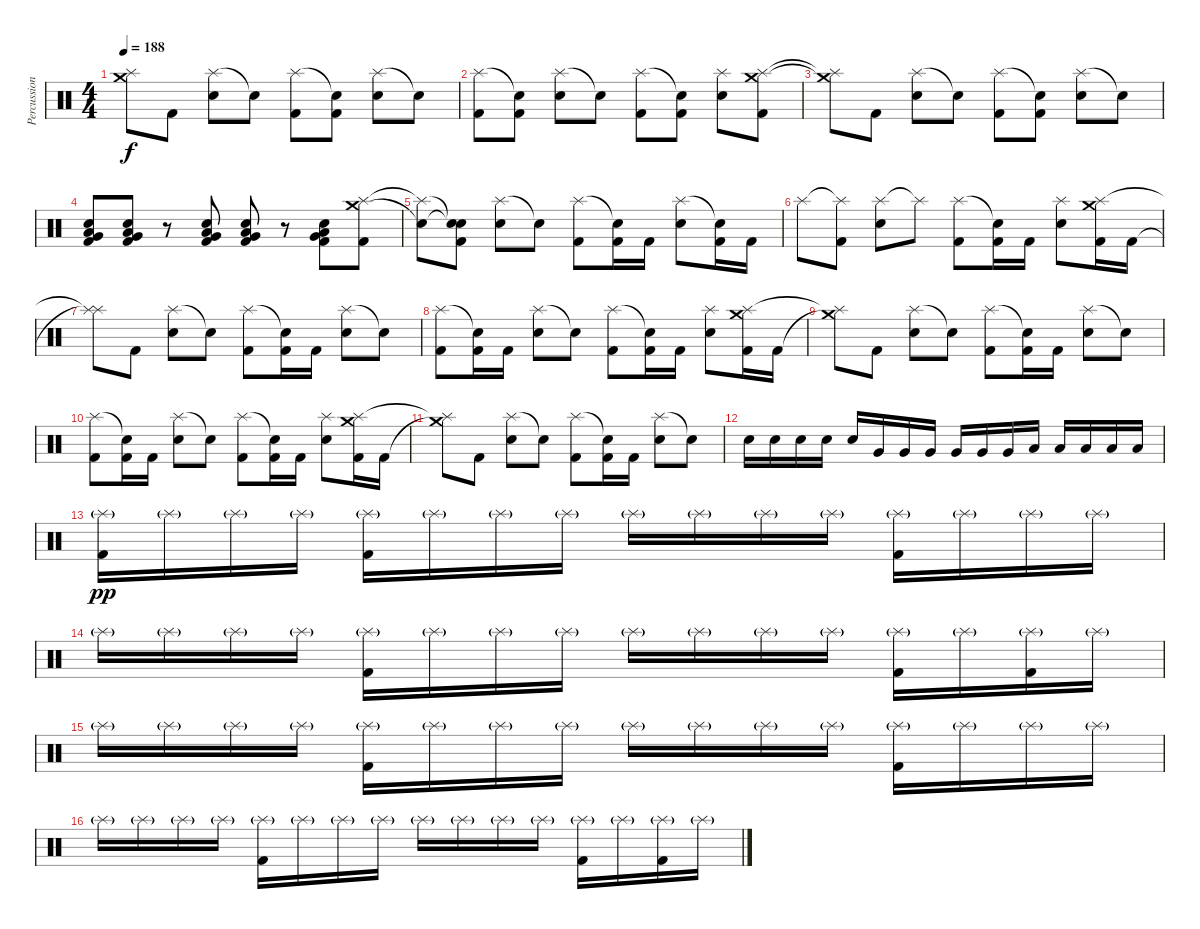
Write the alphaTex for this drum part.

\track ("Percussion" "Percussion") {instrument percussion}
\staff {score}
\articulation defaults
\ts (4 4)
\tempo 188
\clef neutral
\ks c
("Crash medium (hit)"{t} "Splash (hit)"{t}).8{dy f} "Kick (hit) 2".8 ("Splash (hit)" "Electric Snare (hit)").8 "Snare (hit)"{t}.8 ("Splash (hit)" "Kick (hit) 2").8 ("Snare (hit)"{t} "Kick (hit) 2").8 ("Splash (hit)" "Electric Snare (hit)").8 "Snare (hit)"{t}.8 |
("Splash (hit)" "Kick (hit) 2").8 ("Snare (hit)"{t} "Kick (hit) 2").8 ("Splash (hit)" "Electric Snare (hit)").8 "Snare (hit)"{t}.8 ("Splash (hit)" "Kick (hit) 2").8 ("Snare (hit)"{t} "Kick (hit) 2").8 ("Splash (hit)" "Electric Snare (hit)").8 ("Crash medium (hit)" "Splash (hit)" "Kick (hit) 2").8 |
("Crash medium (hit)"{t} "Splash (hit)"{t}).8 "Kick (hit) 2".8 ("Splash (hit)" "Electric Snare (hit)").8 "Snare (hit)"{t}.8 ("Splash (hit)" "Kick (hit) 2").8 ("Snare (hit)"{t} "Kick (hit) 2").8 ("Splash (hit)" "Electric Snare (hit)").8 "Snare (hit)"{t}.8 |
("Electric Snare (hit)" "Low Floor Tom (hit)" "Very Low Tom (hit)" "Kick (hit) 2").8 ("Electric Snare (hit)" "Low Floor Tom (hit)" "Very Low Tom (hit)" "Kick (hit) 2").8 r.8 ("Electric Snare (hit)" "Low Floor Tom (hit)" "Very Low Tom (hit)" "Kick (hit) 2").8 ("Electric Snare (hit)" "Low Floor Tom (hit)" "Very Low Tom (hit)" "Kick (hit) 2").8 r.8 ("Electric Snare (hit)" "Low Floor Tom (hit)" "Very Low Tom (hit)" "Kick (hit) 2").8 ("Splash (hit)" "Crash medium (hit)" "Kick (hit) 2").8 |
("Splash (hit)"{t} "Snare (hit)"{t}).8 ("Snare (hit)"{t} "Snare (hit)"{t} "Kick (hit) 2").8 ("Splash (hit)" "Electric Snare (hit)").8 "Snare (hit)"{t}.8 ("Splash (hit)" "Kick (hit) 2").8 ("Snare (hit)"{t} "Kick (hit) 2").16 "Kick (hit) 2".16 ("Splash (hit)" "Electric Snare (hit)").8 ("Snare (hit)"{t} "Kick (hit) 2").16 "Kick (hit) 2".16 |
"Splash (hit)".8 ("Splash (hit)"{t} "Kick (hit) 2").8 ("Splash (hit)" "Electric Snare (hit)").8 "Splash (hit)"{t}.8 ("Splash (hit)" "Kick (hit) 2").8 ("Snare (hit)"{t} "Kick (hit) 2").16 "Kick (hit) 2".16 ("Splash (hit)" "Electric Snare (hit)").8 ("Crash medium (hit)" "Splash (hit)" "Kick (hit) 2").16 "Kick (hit) 2".16 |
("Splash (hit)"{t} "Splash (hit)"{t}).8 "Kick (hit) 2".8 ("Splash (hit)" "Electric Snare (hit)").8 "Snare (hit)"{t}.8 ("Splash (hit)" "Kick (hit) 2").8 ("Snare (hit)"{t} "Kick (hit) 2").16 "Kick (hit) 2".16 ("Splash (hit)" "Electric Snare (hit)").8 "Snare (hit)"{t}.8 |
("Splash (hit)" "Kick (hit) 2").8 ("Snare (hit)"{t} "Kick (hit) 2").16 "Kick (hit) 2".16 ("Splash (hit)" "Electric Snare (hit)").8 "Snare (hit)"{t}.8 ("Splash (hit)" "Kick (hit) 2").8 ("Snare (hit)"{t} "Kick (hit) 2").16 "Kick (hit) 2".16 ("Splash (hit)" "Electric Snare (hit)").8 ("Crash medium (hit)" "Splash (hit)" "Kick (hit) 2").16 "Kick (hit) 2".16 |
("Crash medium (hit)"{t} "Splash (hit)"{t}).8 "Kick (hit) 2".8 ("Splash (hit)" "Electric Snare (hit)").8 "Snare (hit)"{t}.8 ("Splash (hit)" "Kick (hit) 2").8 ("Snare (hit)"{t} "Kick (hit) 2").16 "Kick (hit) 2".16 ("Splash (hit)" "Electric Snare (hit)").8 "Snare (hit)"{t}.8 |
("Splash (hit)" "Kick (hit) 2").8 ("Snare (hit)"{t} "Kick (hit) 2").16 "Kick (hit) 2".16 ("Splash (hit)" "Electric Snare (hit)").8 "Snare (hit)"{t}.8 ("Splash (hit)" "Kick (hit) 2").8 ("Snare (hit)"{t} "Kick (hit) 2").16 "Kick (hit) 2".16 ("Splash (hit)" "Electric Snare (hit)").8 ("Crash medium (hit)" "Splash (hit)" "Kick (hit) 2").16 "Kick (hit) 2".16 |
("Crash medium (hit)"{t} "Splash (hit)"{t}).8 "Kick (hit) 2".8 ("Splash (hit)" "Electric Snare (hit)").8 "Snare (hit)"{t}.8 ("Splash (hit)" "Kick (hit) 2").8 ("Snare (hit)"{t} "Kick (hit) 2").16 "Kick (hit) 2".16 ("Splash (hit)" "Electric Snare (hit)").8 "Snare (hit)"{t}.8 |
"Electric Snare (hit)".16 "Electric Snare (hit)".16 "Electric Snare (hit)".16 "Electric Snare (hit)".16 "Electric Snare (hit)".16 "Very Low Tom (hit)".16 "Very Low Tom (hit)".16 "Very Low Tom (hit)".16 "Very Low Tom (hit)".16 "Very Low Tom (hit)".16 "Very Low Tom (hit)".16 "Low Floor Tom (hit)".16 "Low Floor Tom (hit)".16 "Low Floor Tom (hit)".16 "Low Floor Tom (hit)".16 "Low Floor Tom (hit)".16 |
("Splash (hit)"{g} "Kick (hit) 2").16{dy pp} "Splash (hit)"{g}.16 "Splash (hit)"{g}.16 "Splash (hit)"{g}.16 ("Splash (hit)"{g} "Kick (hit) 2").16 "Splash (hit)"{g}.16 "Splash (hit)"{g}.16 "Splash (hit)"{g}.16 "Splash (hit)"{g}.16 "Splash (hit)"{g}.16 "Splash (hit)"{g}.16 "Splash (hit)"{g}.16 ("Splash (hit)"{g} "Kick (hit) 2").16 "Splash (hit)"{g}.16 "Splash (hit)"{g}.16 "Splash (hit)"{g}.16 |
"Splash (hit)"{g}.16 "Splash (hit)"{g}.16 "Splash (hit)"{g}.16 "Splash (hit)"{g}.16 ("Splash (hit)"{g} "Kick (hit) 2").16 "Splash (hit)"{g}.16 "Splash (hit)"{g}.16 "Splash (hit)"{g}.16 "Splash (hit)"{g}.16 "Splash (hit)"{g}.16 "Splash (hit)"{g}.16 "Splash (hit)"{g}.16 ("Splash (hit)"{g} "Kick (hit) 2").16 "Splash (hit)"{g}.16 ("Splash (hit)"{g} "Kick (hit) 2").16 "Splash (hit)"{g}.16 |
"Splash (hit)"{g}.16 "Splash (hit)"{g}.16 "Splash (hit)"{g}.16 "Splash (hit)"{g}.16 ("Splash (hit)"{g} "Kick (hit) 2").16 "Splash (hit)"{g}.16 "Splash (hit)"{g}.16 "Splash (hit)"{g}.16 "Splash (hit)"{g}.16 "Splash (hit)"{g}.16 "Splash (hit)"{g}.16 "Splash (hit)"{g}.16 ("Splash (hit)"{g} "Kick (hit) 2").16 "Splash (hit)"{g}.16 "Splash (hit)"{g}.16 "Splash (hit)"{g}.16 |
"Splash (hit)"{g}.16 "Splash (hit)"{g}.16 "Splash (hit)"{g}.16 "Splash (hit)"{g}.16 ("Splash (hit)"{g} "Kick (hit) 2").16 "Splash (hit)"{g}.16 "Splash (hit)"{g}.16 "Splash (hit)"{g}.16 "Splash (hit)"{g}.16 "Splash (hit)"{g}.16 "Splash (hit)"{g}.16 "Splash (hit)"{g}.16 ("Splash (hit)"{g} "Kick (hit) 2").16 "Splash (hit)"{g}.16 ("Splash (hit)"{g} "Kick (hit) 2").16 "Splash (hit)"{g}.16
